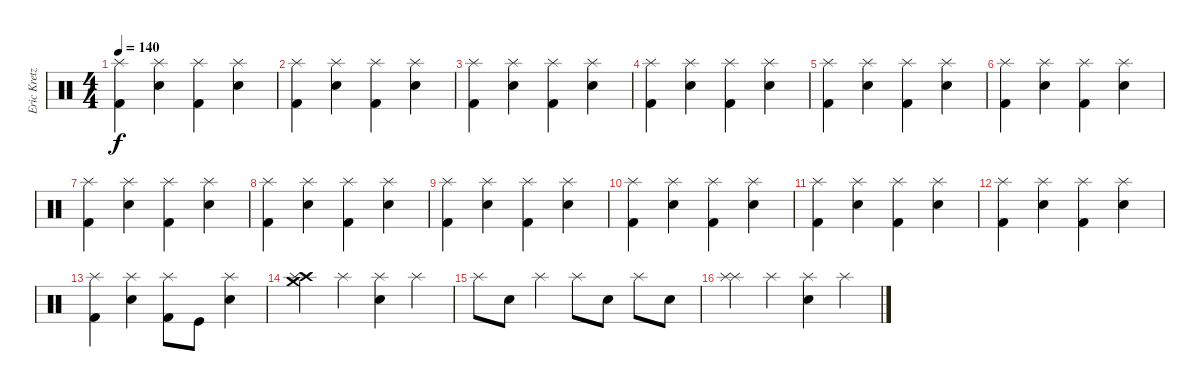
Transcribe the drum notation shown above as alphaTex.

\track ("Eric Kretz" "Eric Kretz") {instrument percussion}
\staff {score}
\articulation defaults
\ts (4 4)
\tempo 140
\clef neutral
\ks c
("Kick (hit) 2" "Splash (hit)").4{dy f} ("Snare (hit) 2" "Splash (hit)").4 ("Kick (hit) 2" "Splash (hit)").4 ("Snare (hit) 2" "Splash (hit)").4 |
("Kick (hit) 2" "Splash (hit)").4 ("Snare (hit) 2" "Splash (hit)").4 ("Kick (hit) 2" "Splash (hit)").4 ("Snare (hit) 2" "Splash (hit)").4 |
("Kick (hit) 2" "Splash (hit)").4 ("Snare (hit) 2" "Splash (hit)").4 ("Kick (hit) 2" "Splash (hit)").4 ("Snare (hit) 2" "Splash (hit)").4 |
("Kick (hit) 2" "Splash (hit)").4 ("Snare (hit) 2" "Splash (hit)").4 ("Kick (hit) 2" "Splash (hit)").4 ("Snare (hit) 2" "Splash (hit)").4 |
("Kick (hit) 2" "Splash (hit)").4 ("Snare (hit) 2" "Splash (hit)").4 ("Kick (hit) 2" "Splash (hit)").4 ("Snare (hit) 2" "Splash (hit)").4 |
("Kick (hit) 2" "Splash (hit)").4 ("Snare (hit) 2" "Splash (hit)").4 ("Kick (hit) 2" "Splash (hit)").4 ("Snare (hit) 2" "Splash (hit)").4 |
("Kick (hit) 2" "Splash (hit)").4 ("Snare (hit) 2" "Splash (hit)").4 ("Kick (hit) 2" "Splash (hit)").4 ("Snare (hit) 2" "Splash (hit)").4 |
("Kick (hit) 2" "Splash (hit)").4 ("Snare (hit) 2" "Splash (hit)").4 ("Kick (hit) 2" "Splash (hit)").4 ("Snare (hit) 2" "Splash (hit)").4 |
("Kick (hit) 2" "Splash (hit)").4 ("Snare (hit) 2" "Splash (hit)").4 ("Kick (hit) 2" "Splash (hit)").4 ("Snare (hit) 2" "Splash (hit)").4 |
("Kick (hit) 2" "Splash (hit)").4 ("Snare (hit) 2" "Splash (hit)").4 ("Kick (hit) 2" "Splash (hit)").4 ("Snare (hit) 2" "Splash (hit)").4 |
("Kick (hit) 2" "Splash (hit)").4 ("Snare (hit) 2" "Splash (hit)").4 ("Kick (hit) 2" "Splash (hit)").4 ("Snare (hit) 2" "Splash (hit)").4 |
("Kick (hit) 2" "Splash (hit)").4 ("Snare (hit) 2" "Splash (hit)").4 ("Kick (hit) 2" "Splash (hit)").4 ("Snare (hit) 2" "Splash (hit)").4 |
("Splash (hit)" "Kick (hit) 2").4 ("Splash (hit)" "Snare (hit) 2").4 ("Splash (hit)" "Kick (hit) 2").8 "Kick (hit)".8 ("Splash (hit)" "Snare (hit) 2").4 |
("Crash high (hit)" "Crash medium (hit)" "Splash (hit)").4 "Splash (hit)".4 ("Splash (hit)" "Snare (hit) 2").4 "Splash (hit)".4 |
"Splash (hit)".8 "Snare (hit) 2".8 "Splash (hit)".4 "Splash (hit)".8 "Snare (hit) 2".8 "Splash (hit)".8 "Snare (hit) 2".8 |
("Splash (hit)" "Splash (hit)").4 "Splash (hit)".4 ("Splash (hit)" "Snare (hit) 2").4 "Splash (hit)".4
